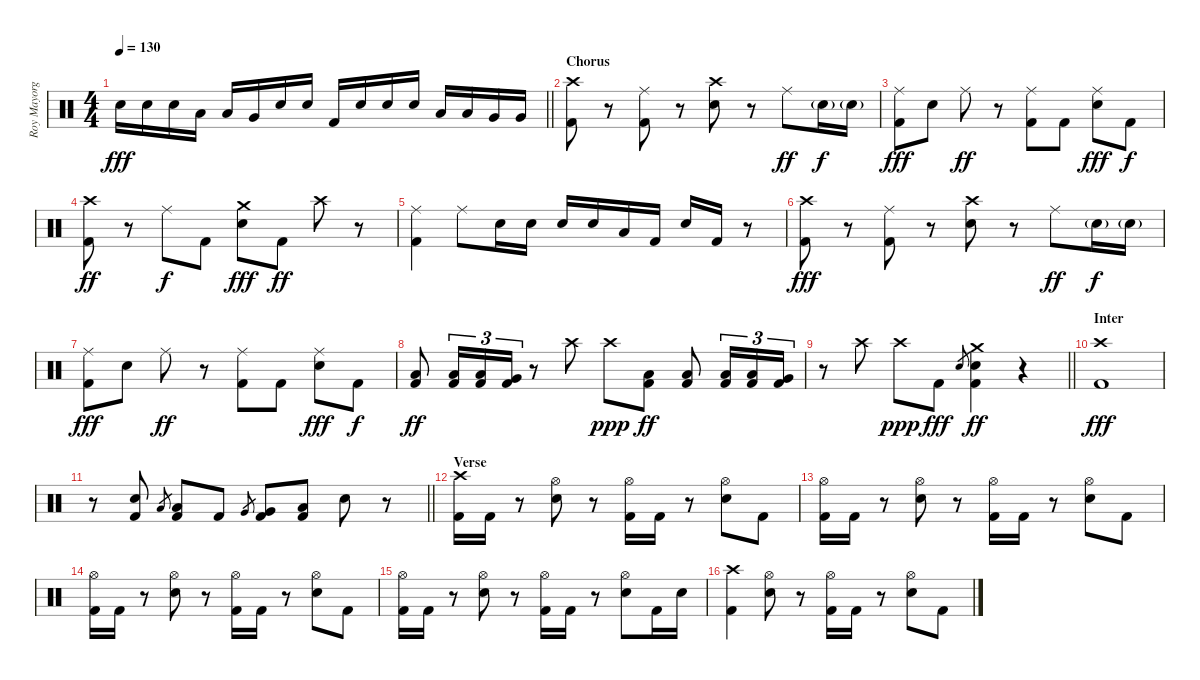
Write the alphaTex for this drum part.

\track ("Roy Mayorga (Drums)" "Roy Mayorg") {instrument percussion}
\staff {score}
\articulation defaults
\ts (4 4)
\tempo 130
\clef neutral
\barLineRight lightlight
\ks c "Electric Snare (hit)".16{dy fff} "Electric Snare (hit)".16 "Electric Snare (hit)".16 "Low Tom (hit)".16 "Low Tom (hit)".16 "Very Low Tom (hit)".16 "Electric Snare (hit)".16 "Electric Snare (hit)".16 "Kick (hit) 2".16 "Electric Snare (hit)".16 "Electric Snare (hit)".16 "Electric Snare (hit)".16 "Low Tom (hit)".16 "Low Tom (hit)".16 "Very Low Tom (hit)".16 "Very Low Tom (hit)".16
|
\section ("" "Chorus")
("Crash high (hit)" "Kick (hit) 2").8 r.8 ("Ride (middle)" "Kick (hit) 2").8 r.8 ("Crash high (hit)" "Electric Snare (hit)").8 r.8 "Ride (middle)".8{dy ff} "Electric Snare (hit)"{g}.16{dy f} "Electric Snare (hit)"{g}.16 |
("Ride (middle)" "Kick (hit) 2").8{dy fff} "Electric Snare (hit)".8 "Ride (middle)".8{dy ff} r.8 ("Ride (middle)" "Kick (hit) 2").8 "Kick (hit) 2".8 ("Ride (middle)" "Electric Snare (hit)").8{dy fff} "Kick (hit) 2".8{dy f} |
("Crash high (hit)" "Kick (hit) 2").8{dy ff} r.8 "Ride (middle)".8{dy f} "Kick (hit) 2".8 ("Crash medium (hit)" "Electric Snare (hit)").8{dy fff} "Kick (hit) 2".8{dy ff} "Crash high (hit)".8 r.8 |
("Ride (middle)" "Kick (hit) 2").4 "Ride (middle)".8 "Electric Snare (hit)".16 "Electric Snare (hit)".16 "Electric Snare (hit)".16 "Electric Snare (hit)".16 "Low Tom (hit)".16 "Kick (hit) 2".16 "Electric Snare (hit)".16 "Kick (hit) 2".16 r.8 |
("Crash high (hit)" "Kick (hit) 2").8{dy fff} r.8 ("Ride (middle)" "Kick (hit) 2").8 r.8 ("Crash high (hit)" "Electric Snare (hit)").8 r.8 "Ride (middle)".8{dy ff} "Electric Snare (hit)"{g}.16{dy f} "Electric Snare (hit)"{g}.16 |
("Ride (middle)" "Kick (hit) 2").8{dy fff} "Electric Snare (hit)".8 "Ride (middle)".8{dy ff} r.8 ("Ride (middle)" "Kick (hit) 2").8 "Kick (hit) 2".8 ("Ride (middle)" "Electric Snare (hit)").8{dy fff} "Kick (hit) 2".8{dy f} |
("Low Tom (hit)" "Kick (hit) 2").8{dy ff} ("Low Tom (hit)" "Kick (hit) 2").16{tu (3 2)} ("Low Tom (hit)" "Kick (hit) 2").16{tu (3 2)} ("Very Low Tom (hit)" "Kick (hit) 2").16{tu (3 2)} r.8 "Crash high (hit)".8 "Crash high (hit)".8{dy ppp} ("Low Tom (hit)" "Kick (hit) 2").8{dy ff} ("Low Tom (hit)" "Kick (hit) 2").8 ("Low Tom (hit)" "Kick (hit) 2").16{tu (3 2)} ("Low Tom (hit)" "Kick (hit) 2").16{tu (3 2)} ("Very Low Tom (hit)" "Kick (hit) 2").16{tu (3 2)} |
\barLineRight lightlight
r.8 "Crash high (hit)".8 "Crash high (hit)".8{dy ppp} "Kick (hit) 2".8{dy fff} "Electric Snare (hit)".8{gr} ("Crash medium (hit)" "Electric Snare (hit)" "Kick (hit) 2").4{dy ff} r.4 |
\section ("" "Inter")
("Crash high (hit)" "Kick (hit) 2").1{dy fff} |
\barLineRight lightlight
r.8 ("Electric Snare (hit)" "Kick (hit) 2").8 "Low Tom (hit)".8{gr} ("Low Tom (hit)" "Kick (hit) 2").8 "Kick (hit) 2".8 "Very Low Tom (hit)".8{gr} ("Very Low Tom (hit)" "Kick (hit) 2").8 ("Low Floor Tom (hit)" "Kick (hit) 2").8 "Electric Snare (hit)".8 r.8 |
\section ("" "Verse")
("Crash high (hit)" "Kick (hit) 2").16 "Kick (hit) 2".16 r.8 ("Hi-Hat (open)" "Electric Snare (hit)").8 r.8 ("Hi-Hat (open)" "Kick (hit) 2").16 "Kick (hit) 2".16 r.8 ("Hi-Hat (open)" "Electric Snare (hit)").8 "Kick (hit) 2".8 |
("Hi-Hat (open)" "Kick (hit) 2").16 "Kick (hit) 2".16 r.8 ("Hi-Hat (open)" "Electric Snare (hit)").8 r.8 ("Hi-Hat (open)" "Kick (hit) 2").16 "Kick (hit) 2".16 r.8 ("Hi-Hat (open)" "Electric Snare (hit)").8 "Kick (hit) 2".8 |
("Hi-Hat (open)" "Kick (hit) 2").16 "Kick (hit) 2".16 r.8 ("Hi-Hat (open)" "Electric Snare (hit)").8 r.8 ("Hi-Hat (open)" "Kick (hit) 2").16 "Kick (hit) 2".16 r.8 ("Hi-Hat (open)" "Electric Snare (hit)").8 "Kick (hit) 2".8 |
("Hi-Hat (open)" "Kick (hit) 2").16 "Kick (hit) 2".16 r.8 ("Hi-Hat (open)" "Electric Snare (hit)").8 r.8 ("Hi-Hat (open)" "Kick (hit) 2").16 "Kick (hit) 2".16 r.8 ("Hi-Hat (open)" "Electric Snare (hit)").8 "Kick (hit) 2".16 "Electric Snare (hit)".16 |
("Crash high (hit)" "Kick (hit) 2").4 ("Hi-Hat (open)" "Electric Snare (hit)").8 r.8 ("Hi-Hat (open)" "Kick (hit) 2").16 "Kick (hit) 2".16 r.8 ("Hi-Hat (open)" "Electric Snare (hit)").8 "Kick (hit) 2".8
